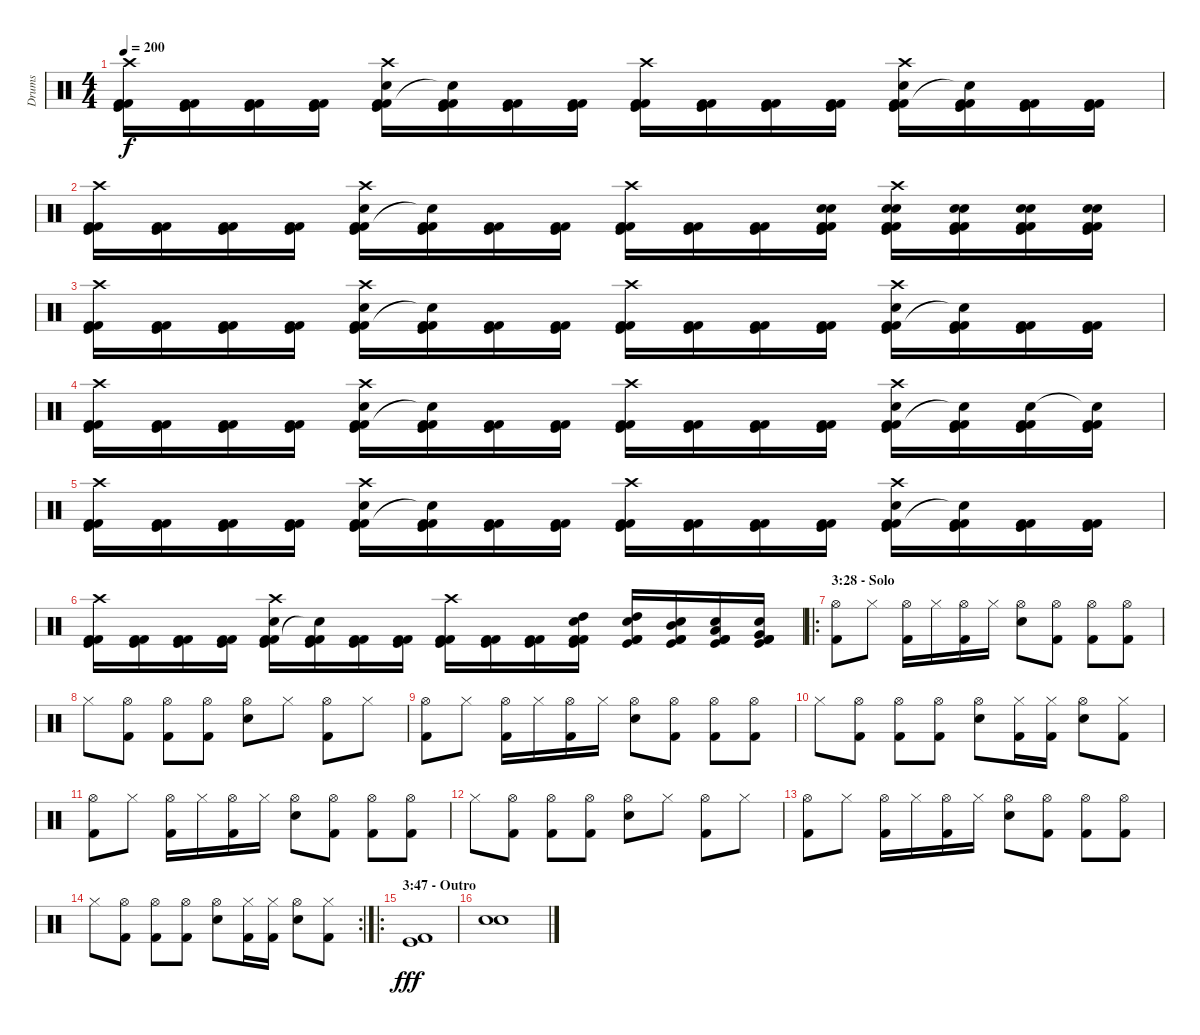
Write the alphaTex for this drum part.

\track ("Drums" "Drums") {instrument percussion}
\staff {score}
\articulation defaults
\ts (4 4)
\tempo 200
\clef neutral
\ks c
("Crash high (hit)" "Kick (hit)" "Kick (hit) 2" "Kick (hit) 2").16{dy f} ("Kick (hit)" "Kick (hit) 2" "Kick (hit) 2").16 ("Kick (hit)" "Kick (hit) 2" "Kick (hit) 2").16 ("Kick (hit)" "Kick (hit) 2" "Kick (hit) 2").16 ("Crash high (hit)" "Kick (hit)" "Kick (hit) 2" "Electric Snare (hit)" "Kick (hit) 2").16 ("Kick (hit)" "Kick (hit) 2" "Snare (hit)"{t} "Kick (hit) 2").16 ("Kick (hit)" "Kick (hit) 2" "Kick (hit) 2").16 ("Kick (hit)" "Kick (hit) 2" "Kick (hit) 2").16 ("Crash high (hit)" "Kick (hit)" "Kick (hit) 2" "Kick (hit) 2").16 ("Kick (hit)" "Kick (hit) 2" "Kick (hit) 2").16 ("Kick (hit)" "Kick (hit) 2" "Kick (hit) 2").16 ("Kick (hit)" "Kick (hit) 2" "Kick (hit) 2").16 ("Crash high (hit)" "Kick (hit)" "Kick (hit) 2" "Electric Snare (hit)" "Kick (hit) 2").16 ("Kick (hit)" "Kick (hit) 2" "Snare (hit)"{t} "Kick (hit) 2").16 ("Kick (hit)" "Kick (hit) 2" "Kick (hit) 2").16 ("Kick (hit)" "Kick (hit) 2" "Kick (hit) 2").16 |
("Crash high (hit)" "Kick (hit)" "Kick (hit) 2" "Kick (hit) 2").16 ("Kick (hit)" "Kick (hit) 2" "Kick (hit) 2").16 ("Kick (hit)" "Kick (hit) 2" "Kick (hit) 2").16 ("Kick (hit)" "Kick (hit) 2" "Kick (hit) 2").16 ("Crash high (hit)" "Kick (hit)" "Kick (hit) 2" "Electric Snare (hit)" "Kick (hit) 2").16 ("Kick (hit)" "Kick (hit) 2" "Snare (hit)"{t} "Kick (hit) 2").16 ("Kick (hit)" "Kick (hit) 2" "Kick (hit) 2").16 ("Kick (hit)" "Kick (hit) 2" "Kick (hit) 2").16 ("Crash high (hit)" "Kick (hit)" "Kick (hit) 2" "Kick (hit) 2").16 ("Kick (hit)" "Kick (hit) 2" "Kick (hit) 2").16 ("Kick (hit)" "Kick (hit) 2" "Kick (hit) 2").16 ("Kick (hit)" "Electric Snare (hit)" "Kick (hit) 2" "Electric Snare (hit)" "Kick (hit) 2").16 ("Crash high (hit)" "Kick (hit)" "Electric Snare (hit)" "Kick (hit) 2" "Electric Snare (hit)" "Kick (hit) 2").16 ("Kick (hit)" "Electric Snare (hit)" "Kick (hit) 2" "Electric Snare (hit)" "Kick (hit) 2").16 ("Kick (hit)" "Electric Snare (hit)" "Kick (hit) 2" "Electric Snare (hit)" "Kick (hit) 2").16 ("Kick (hit)" "Electric Snare (hit)" "Kick (hit) 2" "Electric Snare (hit)" "Kick (hit) 2").16 |
("Crash high (hit)" "Kick (hit)" "Kick (hit) 2" "Kick (hit) 2").16 ("Kick (hit)" "Kick (hit) 2" "Kick (hit) 2").16 ("Kick (hit)" "Kick (hit) 2" "Kick (hit) 2").16 ("Kick (hit)" "Kick (hit) 2" "Kick (hit) 2").16 ("Crash high (hit)" "Kick (hit)" "Kick (hit) 2" "Electric Snare (hit)" "Kick (hit) 2").16 ("Kick (hit)" "Kick (hit) 2" "Snare (hit)"{t} "Kick (hit) 2").16 ("Kick (hit)" "Kick (hit) 2" "Kick (hit) 2").16 ("Kick (hit)" "Kick (hit) 2" "Kick (hit) 2").16 ("Crash high (hit)" "Kick (hit)" "Kick (hit) 2" "Kick (hit) 2").16 ("Kick (hit)" "Kick (hit) 2" "Kick (hit) 2").16 ("Kick (hit)" "Kick (hit) 2" "Kick (hit) 2").16 ("Kick (hit)" "Kick (hit) 2" "Kick (hit) 2").16 ("Crash high (hit)" "Kick (hit)" "Kick (hit) 2" "Electric Snare (hit)" "Kick (hit) 2").16 ("Kick (hit)" "Kick (hit) 2" "Snare (hit)"{t} "Kick (hit) 2").16 ("Kick (hit)" "Kick (hit) 2" "Kick (hit) 2").16 ("Kick (hit)" "Kick (hit) 2" "Kick (hit) 2").16 |
("Crash high (hit)" "Kick (hit)" "Kick (hit) 2" "Kick (hit) 2").16 ("Kick (hit)" "Kick (hit) 2" "Kick (hit) 2").16 ("Kick (hit)" "Kick (hit) 2" "Kick (hit) 2").16 ("Kick (hit)" "Kick (hit) 2" "Kick (hit) 2").16 ("Crash high (hit)" "Kick (hit)" "Kick (hit) 2" "Electric Snare (hit)" "Kick (hit) 2").16 ("Kick (hit)" "Kick (hit) 2" "Snare (hit)"{t} "Kick (hit) 2").16 ("Kick (hit)" "Kick (hit) 2" "Kick (hit) 2").16 ("Kick (hit)" "Kick (hit) 2" "Kick (hit) 2").16 ("Crash high (hit)" "Kick (hit)" "Kick (hit) 2" "Kick (hit) 2").16 ("Kick (hit)" "Kick (hit) 2" "Kick (hit) 2").16 ("Kick (hit)" "Kick (hit) 2" "Kick (hit) 2").16 ("Kick (hit)" "Kick (hit) 2" "Kick (hit) 2").16 ("Crash high (hit)" "Kick (hit)" "Kick (hit) 2" "Electric Snare (hit)" "Kick (hit) 2").16 ("Kick (hit)" "Kick (hit) 2" "Snare (hit)"{t} "Kick (hit) 2").16 ("Kick (hit)" "Kick (hit) 2" "Electric Snare (hit)" "Kick (hit) 2").16 ("Kick (hit)" "Kick (hit) 2" "Snare (hit)"{t} "Kick (hit) 2").16 |
("Crash high (hit)" "Kick (hit)" "Kick (hit) 2" "Kick (hit) 2").16 ("Kick (hit)" "Kick (hit) 2" "Kick (hit) 2").16 ("Kick (hit)" "Kick (hit) 2" "Kick (hit) 2").16 ("Kick (hit)" "Kick (hit) 2" "Kick (hit) 2").16 ("Crash high (hit)" "Kick (hit)" "Kick (hit) 2" "Electric Snare (hit)" "Kick (hit) 2").16 ("Kick (hit)" "Kick (hit) 2" "Snare (hit)"{t} "Kick (hit) 2").16 ("Kick (hit)" "Kick (hit) 2" "Kick (hit) 2").16 ("Kick (hit)" "Kick (hit) 2" "Kick (hit) 2").16 ("Crash high (hit)" "Kick (hit)" "Kick (hit) 2" "Kick (hit) 2").16 ("Kick (hit)" "Kick (hit) 2" "Kick (hit) 2").16 ("Kick (hit)" "Kick (hit) 2" "Kick (hit) 2").16 ("Kick (hit)" "Kick (hit) 2" "Kick (hit) 2").16 ("Crash high (hit)" "Kick (hit)" "Kick (hit) 2" "Electric Snare (hit)" "Kick (hit) 2").16 ("Kick (hit)" "Kick (hit) 2" "Snare (hit)"{t} "Kick (hit) 2").16 ("Kick (hit)" "Kick (hit) 2" "Kick (hit) 2").16 ("Kick (hit)" "Kick (hit) 2" "Kick (hit) 2").16 |
("Crash high (hit)" "Kick (hit)" "Kick (hit) 2" "Kick (hit) 2").16 ("Kick (hit)" "Kick (hit) 2" "Kick (hit) 2").16 ("Kick (hit)" "Kick (hit) 2" "Kick (hit) 2").16 ("Kick (hit)" "Kick (hit) 2" "Kick (hit) 2").16 ("Crash high (hit)" "Kick (hit)" "Kick (hit) 2" "Electric Snare (hit)" "Kick (hit) 2").16 ("Kick (hit)" "Kick (hit) 2" "Snare (hit)"{t} "Kick (hit) 2").16 ("Kick (hit)" "Kick (hit) 2" "Kick (hit) 2").16 ("Kick (hit)" "Kick (hit) 2" "Kick (hit) 2").16 ("Crash high (hit)" "Kick (hit)" "Kick (hit) 2" "Kick (hit) 2").16 ("Kick (hit)" "Kick (hit) 2" "Kick (hit) 2").16 ("Kick (hit)" "Kick (hit) 2" "Kick (hit) 2").16 ("Kick (hit)" "High Tom (hit)" "Kick (hit) 2" "Electric Snare (hit)" "Kick (hit) 2").16 ("Kick (hit)" "High Tom (hit)" "Kick (hit) 2" "Electric Snare (hit)" "Kick (hit) 2").16 ("Kick (hit)" "Mid Tom (hit)" "Kick (hit) 2" "Electric Snare (hit)" "Kick (hit) 2").16 ("Kick (hit)" "Low Tom (hit)" "Kick (hit) 2" "Electric Snare (hit)" "Kick (hit) 2").16 ("Kick (hit)" "Very Low Tom (hit)" "Kick (hit) 2" "Electric Snare (hit)" "Kick (hit) 2").16 |
\ro
\section ("" "3:28 - Solo")
("Hi-Hat (open)" "Kick (hit) 2").8 "Hi-Hat (closed)".8 ("Hi-Hat (open)" "Kick (hit) 2").16 "Hi-Hat (closed)".16 ("Hi-Hat (open)" "Kick (hit) 2").16 "Hi-Hat (closed)".16 ("Hi-Hat (open)" "Electric Snare (hit)").8 ("Hi-Hat (open)" "Kick (hit) 2").8 ("Hi-Hat (open)" "Kick (hit) 2").8 ("Hi-Hat (open)" "Kick (hit) 2").8 |
"Hi-Hat (closed)".8 ("Hi-Hat (open)" "Kick (hit) 2").8 ("Hi-Hat (open)" "Kick (hit) 2").8 ("Hi-Hat (open)" "Kick (hit) 2").8 ("Hi-Hat (open)" "Electric Snare (hit)").8 "Hi-Hat (closed)".8 ("Hi-Hat (open)" "Kick (hit) 2").8 "Hi-Hat (closed)".8 |
("Hi-Hat (open)" "Kick (hit) 2").8 "Hi-Hat (closed)".8 ("Hi-Hat (open)" "Kick (hit) 2").16 "Hi-Hat (closed)".16 ("Hi-Hat (open)" "Kick (hit) 2").16 "Hi-Hat (closed)".16 ("Hi-Hat (open)" "Electric Snare (hit)").8 ("Hi-Hat (open)" "Kick (hit) 2").8 ("Hi-Hat (open)" "Kick (hit) 2").8 ("Hi-Hat (open)" "Kick (hit) 2").8 |
"Hi-Hat (closed)".8 ("Hi-Hat (open)" "Kick (hit) 2").8 ("Hi-Hat (open)" "Kick (hit) 2").8 ("Hi-Hat (open)" "Kick (hit) 2").8 ("Hi-Hat (open)" "Electric Snare (hit)").8 ("Hi-Hat (closed)" "Kick (hit) 2").16 ("Hi-Hat (closed)" "Kick (hit) 2").16 ("Hi-Hat (open)" "Electric Snare (hit)").8 ("Hi-Hat (closed)" "Kick (hit) 2").8 |
("Hi-Hat (open)" "Kick (hit) 2").8 "Hi-Hat (closed)".8 ("Hi-Hat (open)" "Kick (hit) 2").16 "Hi-Hat (closed)".16 ("Hi-Hat (open)" "Kick (hit) 2").16 "Hi-Hat (closed)".16 ("Hi-Hat (open)" "Electric Snare (hit)").8 ("Hi-Hat (open)" "Kick (hit) 2").8 ("Hi-Hat (open)" "Kick (hit) 2").8 ("Hi-Hat (open)" "Kick (hit) 2").8 |
"Hi-Hat (closed)".8 ("Hi-Hat (open)" "Kick (hit) 2").8 ("Hi-Hat (open)" "Kick (hit) 2").8 ("Hi-Hat (open)" "Kick (hit) 2").8 ("Hi-Hat (open)" "Electric Snare (hit)").8 "Hi-Hat (closed)".8 ("Hi-Hat (open)" "Kick (hit) 2").8 "Hi-Hat (closed)".8 |
("Hi-Hat (open)" "Kick (hit) 2").8 "Hi-Hat (closed)".8 ("Hi-Hat (open)" "Kick (hit) 2").16 "Hi-Hat (closed)".16 ("Hi-Hat (open)" "Kick (hit) 2").16 "Hi-Hat (closed)".16 ("Hi-Hat (open)" "Electric Snare (hit)").8 ("Hi-Hat (open)" "Kick (hit) 2").8 ("Hi-Hat (open)" "Kick (hit) 2").8 ("Hi-Hat (open)" "Kick (hit) 2").8 |
\rc 2 "Hi-Hat (closed)".8
("Hi-Hat (open)" "Kick (hit) 2").8 ("Hi-Hat (open)" "Kick (hit) 2").8 ("Hi-Hat (open)" "Kick (hit) 2").8 ("Hi-Hat (open)" "Electric Snare (hit)").8 ("Hi-Hat (closed)" "Kick (hit) 2").16 ("Hi-Hat (closed)" "Kick (hit) 2").16 ("Hi-Hat (open)" "Electric Snare (hit)").8 ("Hi-Hat (closed)" "Kick (hit) 2").8 |
\ro
\section ("" "3:47 - Outro")
("Kick (hit)" "Kick (hit) 2").1{dy fff} |
("Electric Snare (hit)" "Electric Snare (hit)").1
